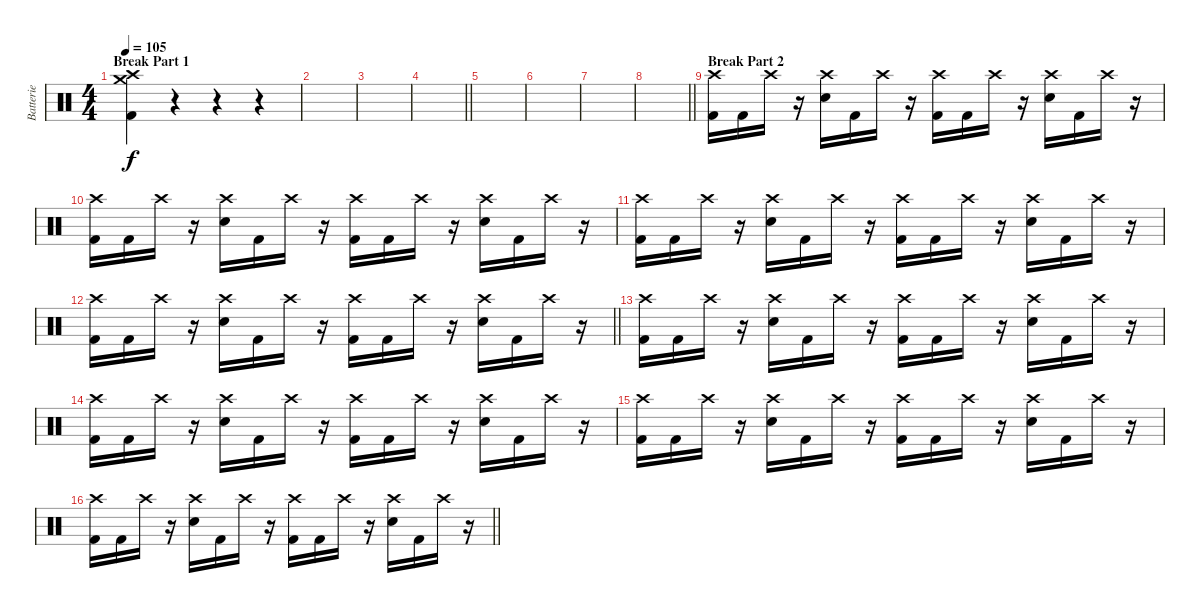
\track ("Batterie" "Batterie") {instrument percussion}
\staff {score}
\articulation defaults
\ts (4 4)
\section ("" "Break Part 1")
\tempo 105
\clef neutral
\ks c
("Kick (hit) 2" "Crash medium (hit)" "Crash high (hit)").4{dy f} r.4 r.4 r.4 |
|
|
\barLineRight lightlight
|
|
|
|
\barLineRight lightlight
|
\section ("" "Break Part 2")
("Kick (hit) 2" "Crash high (hit)").16 "Kick (hit) 2".16 "Crash high (hit)".16 r.16 ("Electric Snare (hit)" "Crash high (hit)").16 "Kick (hit) 2".16 "Crash high (hit)".16 r.16 ("Kick (hit) 2" "Crash high (hit)").16 "Kick (hit) 2".16 "Crash high (hit)".16 r.16 ("Electric Snare (hit)" "Crash high (hit)").16 "Kick (hit) 2".16 "Crash high (hit)".16 r.16 |
("Kick (hit) 2" "Crash high (hit)").16 "Kick (hit) 2".16 "Crash high (hit)".16 r.16 ("Electric Snare (hit)" "Crash high (hit)").16 "Kick (hit) 2".16 "Crash high (hit)".16 r.16 ("Kick (hit) 2" "Crash high (hit)").16 "Kick (hit) 2".16 "Crash high (hit)".16 r.16 ("Electric Snare (hit)" "Crash high (hit)").16 "Kick (hit) 2".16 "Crash high (hit)".16 r.16 |
("Kick (hit) 2" "Crash high (hit)").16 "Kick (hit) 2".16 "Crash high (hit)".16 r.16 ("Electric Snare (hit)" "Crash high (hit)").16 "Kick (hit) 2".16 "Crash high (hit)".16 r.16 ("Kick (hit) 2" "Crash high (hit)").16 "Kick (hit) 2".16 "Crash high (hit)".16 r.16 ("Electric Snare (hit)" "Crash high (hit)").16 "Kick (hit) 2".16 "Crash high (hit)".16 r.16 |
\barLineRight lightlight
("Kick (hit) 2" "Crash high (hit)").16 "Kick (hit) 2".16 "Crash high (hit)".16 r.16 ("Electric Snare (hit)" "Crash high (hit)").16 "Kick (hit) 2".16 "Crash high (hit)".16 r.16 ("Kick (hit) 2" "Crash high (hit)").16 "Kick (hit) 2".16 "Crash high (hit)".16 r.16 ("Electric Snare (hit)" "Crash high (hit)").16 "Kick (hit) 2".16 "Crash high (hit)".16 r.16 |
("Kick (hit) 2" "Crash high (hit)").16 "Kick (hit) 2".16 "Crash high (hit)".16 r.16 ("Electric Snare (hit)" "Crash high (hit)").16 "Kick (hit) 2".16 "Crash high (hit)".16 r.16 ("Kick (hit) 2" "Crash high (hit)").16 "Kick (hit) 2".16 "Crash high (hit)".16 r.16 ("Electric Snare (hit)" "Crash high (hit)").16 "Kick (hit) 2".16 "Crash high (hit)".16 r.16 |
("Kick (hit) 2" "Crash high (hit)").16 "Kick (hit) 2".16 "Crash high (hit)".16 r.16 ("Electric Snare (hit)" "Crash high (hit)").16 "Kick (hit) 2".16 "Crash high (hit)".16 r.16 ("Kick (hit) 2" "Crash high (hit)").16 "Kick (hit) 2".16 "Crash high (hit)".16 r.16 ("Electric Snare (hit)" "Crash high (hit)").16 "Kick (hit) 2".16 "Crash high (hit)".16 r.16 |
("Kick (hit) 2" "Crash high (hit)").16 "Kick (hit) 2".16 "Crash high (hit)".16 r.16 ("Electric Snare (hit)" "Crash high (hit)").16 "Kick (hit) 2".16 "Crash high (hit)".16 r.16 ("Kick (hit) 2" "Crash high (hit)").16 "Kick (hit) 2".16 "Crash high (hit)".16 r.16 ("Electric Snare (hit)" "Crash high (hit)").16 "Kick (hit) 2".16 "Crash high (hit)".16 r.16 |
\barLineRight lightlight
("Kick (hit) 2" "Crash high (hit)").16 "Kick (hit) 2".16 "Crash high (hit)".16 r.16 ("Electric Snare (hit)" "Crash high (hit)").16 "Kick (hit) 2".16 "Crash high (hit)".16 r.16 ("Kick (hit) 2" "Crash high (hit)").16 "Kick (hit) 2".16 "Crash high (hit)".16 r.16 ("Electric Snare (hit)" "Crash high (hit)").16 "Kick (hit) 2".16 "Crash high (hit)".16 r.16
